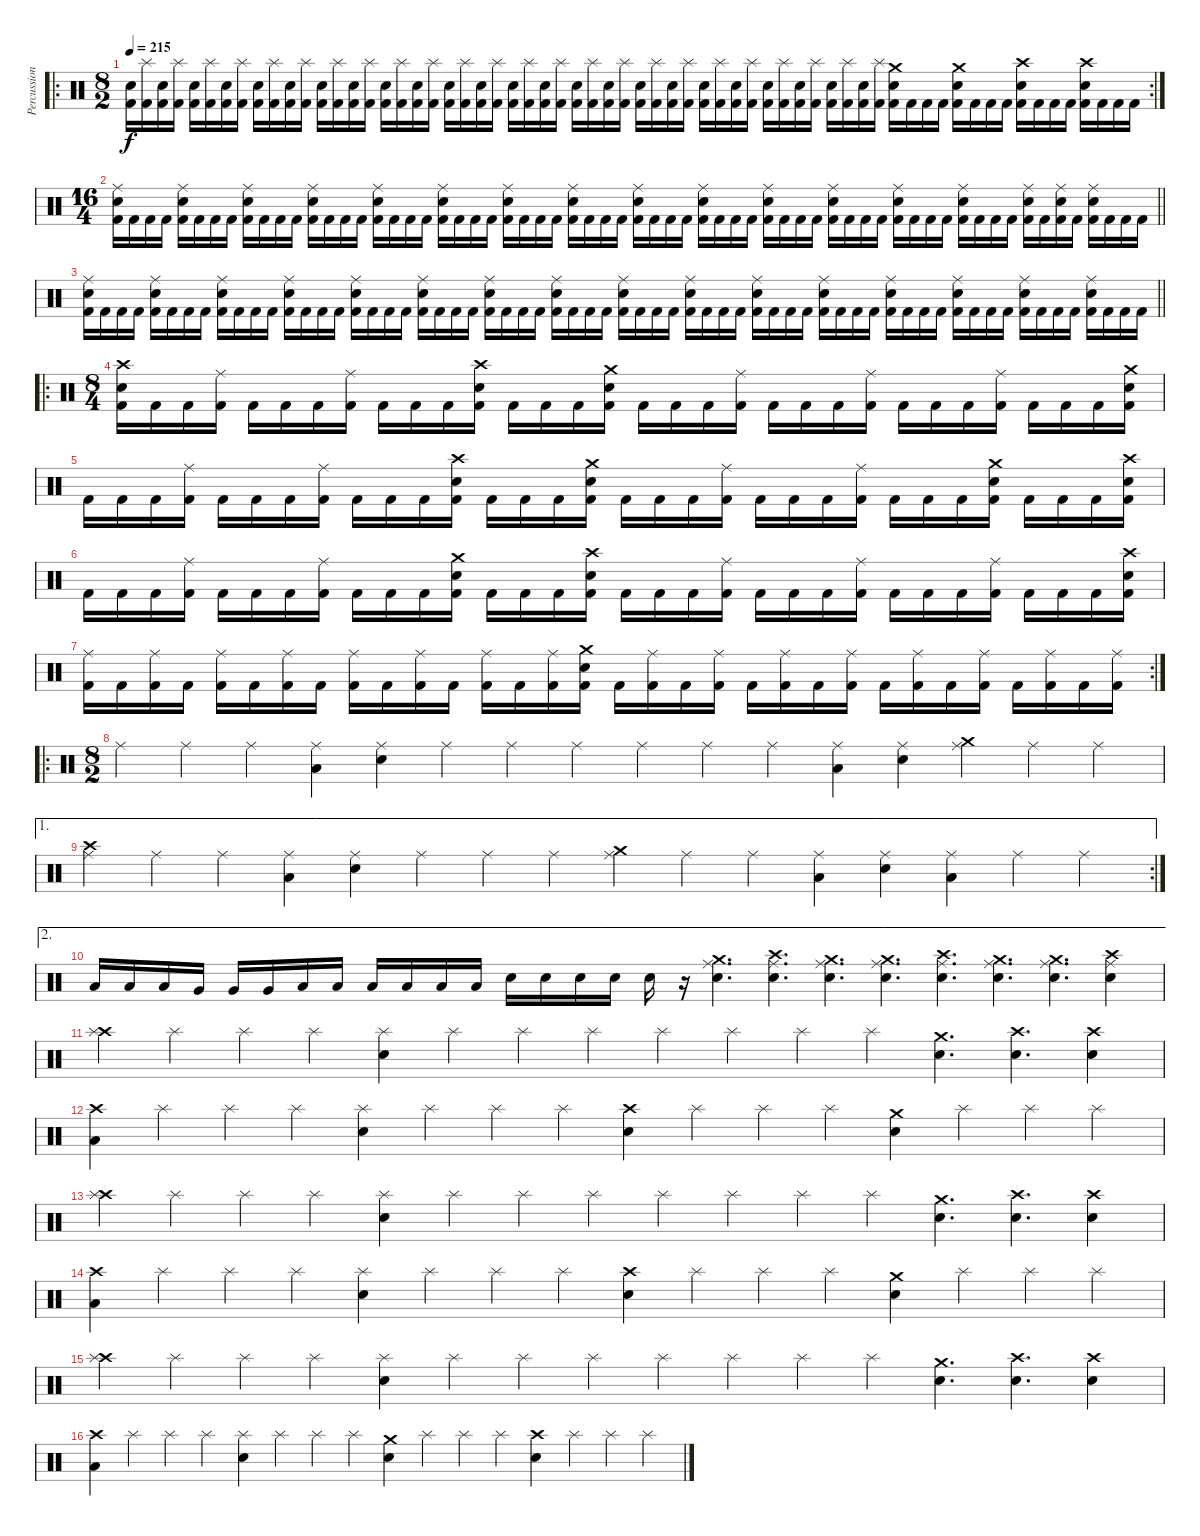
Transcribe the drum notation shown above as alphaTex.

\track ("Percussions" "Percussion") {instrument percussion}
\staff {score}
\articulation defaults
\ro
\rc 2
\ts (8 2)
\tempo 215
\clef neutral
\ks c
("Electric Snare (hit)" "Kick (hit) 2").16{dy f} ("Splash (hit)" "Kick (hit) 2").16 ("Electric Snare (hit)" "Kick (hit) 2").16 ("Splash (hit)" "Kick (hit) 2").16 ("Electric Snare (hit)" "Kick (hit) 2").16 ("Splash (hit)" "Kick (hit) 2").16 ("Electric Snare (hit)" "Kick (hit) 2").16 ("Splash (hit)" "Kick (hit) 2").16 ("Electric Snare (hit)" "Kick (hit) 2").16 ("Splash (hit)" "Kick (hit) 2").16 ("Electric Snare (hit)" "Kick (hit) 2").16 ("Splash (hit)" "Kick (hit) 2").16 ("Electric Snare (hit)" "Kick (hit) 2").16 ("Splash (hit)" "Kick (hit) 2").16 ("Electric Snare (hit)" "Kick (hit) 2").16 ("Splash (hit)" "Kick (hit) 2").16 ("Electric Snare (hit)" "Kick (hit) 2").16 ("Splash (hit)" "Kick (hit) 2").16 ("Electric Snare (hit)" "Kick (hit) 2").16 ("Splash (hit)" "Kick (hit) 2").16 ("Electric Snare (hit)" "Kick (hit) 2").16 ("Splash (hit)" "Kick (hit) 2").16 ("Electric Snare (hit)" "Kick (hit) 2").16 ("Splash (hit)" "Kick (hit) 2").16 ("Electric Snare (hit)" "Kick (hit) 2").16 ("Splash (hit)" "Kick (hit) 2").16 ("Electric Snare (hit)" "Kick (hit) 2").16 ("Splash (hit)" "Kick (hit) 2").16 ("Electric Snare (hit)" "Kick (hit) 2").16 ("Splash (hit)" "Kick (hit) 2").16 ("Electric Snare (hit)" "Kick (hit) 2").16 ("Splash (hit)" "Kick (hit) 2").16 ("Electric Snare (hit)" "Kick (hit) 2").16 ("Splash (hit)" "Kick (hit) 2").16 ("Electric Snare (hit)" "Kick (hit) 2").16 ("Splash (hit)" "Kick (hit) 2").16 ("Electric Snare (hit)" "Kick (hit) 2").16 ("Splash (hit)" "Kick (hit) 2").16 ("Electric Snare (hit)" "Kick (hit) 2").16 ("Splash (hit)" "Kick (hit) 2").16 ("Electric Snare (hit)" "Kick (hit) 2").16 ("Splash (hit)" "Kick (hit) 2").16 ("Electric Snare (hit)" "Kick (hit) 2").16 ("Splash (hit)" "Kick (hit) 2").16 ("Electric Snare (hit)" "Kick (hit) 2").16 ("Splash (hit)" "Kick (hit) 2").16 ("Electric Snare (hit)" "Kick (hit) 2").16 ("Splash (hit)" "Kick (hit) 2").16 ("Crash medium (hit)" "Electric Snare (hit)" "Kick (hit) 2").16 "Kick (hit) 2".16 "Kick (hit) 2".16 "Kick (hit) 2".16 ("Crash medium (hit)" "Electric Snare (hit)" "Kick (hit) 2").16 "Kick (hit) 2".16 "Kick (hit) 2".16 "Kick (hit) 2".16 ("Crash high (hit)" "Electric Snare (hit)" "Kick (hit) 2").16 "Kick (hit) 2".16 "Kick (hit) 2".16 "Kick (hit) 2".16 ("Crash high (hit)" "Electric Snare (hit)" "Kick (hit) 2").16 "Kick (hit) 2".16 "Kick (hit) 2".16 "Kick (hit) 2".16 |
\ts (16 4)
\barLineRight lightlight
("Ride (middle)" "Electric Snare (hit)" "Kick (hit) 2").16 "Kick (hit) 2".16 "Kick (hit) 2".16 "Kick (hit) 2".16 ("Ride (middle)" "Electric Snare (hit)" "Kick (hit) 2").16 "Kick (hit) 2".16 "Kick (hit) 2".16 "Kick (hit) 2".16 ("Ride (middle)" "Electric Snare (hit)" "Kick (hit) 2").16 "Kick (hit) 2".16 "Kick (hit) 2".16 "Kick (hit) 2".16 ("Ride (middle)" "Electric Snare (hit)" "Kick (hit) 2").16 "Kick (hit) 2".16 "Kick (hit) 2".16 "Kick (hit) 2".16 ("Ride (middle)" "Electric Snare (hit)" "Kick (hit) 2").16 "Kick (hit) 2".16 "Kick (hit) 2".16 "Kick (hit) 2".16 ("Ride (middle)" "Electric Snare (hit)" "Kick (hit) 2").16 "Kick (hit) 2".16 "Kick (hit) 2".16 "Kick (hit) 2".16 ("Ride (middle)" "Electric Snare (hit)" "Kick (hit) 2").16 "Kick (hit) 2".16 "Kick (hit) 2".16 "Kick (hit) 2".16 ("Ride (middle)" "Electric Snare (hit)" "Kick (hit) 2").16 "Kick (hit) 2".16 "Kick (hit) 2".16 "Kick (hit) 2".16 ("Ride (middle)" "Electric Snare (hit)" "Kick (hit) 2").16 "Kick (hit) 2".16 "Kick (hit) 2".16 "Kick (hit) 2".16 ("Ride (middle)" "Electric Snare (hit)" "Kick (hit) 2").16 "Kick (hit) 2".16 "Kick (hit) 2".16 "Kick (hit) 2".16 ("Ride (middle)" "Electric Snare (hit)" "Kick (hit) 2").16 "Kick (hit) 2".16 "Kick (hit) 2".16 "Kick (hit) 2".16 ("Ride (middle)" "Electric Snare (hit)" "Kick (hit) 2").16 "Kick (hit) 2".16 "Kick (hit) 2".16 "Kick (hit) 2".16 ("Ride (middle)" "Electric Snare (hit)" "Kick (hit) 2").16 "Kick (hit) 2".16 "Kick (hit) 2".16 "Kick (hit) 2".16 ("Ride (middle)" "Electric Snare (hit)" "Kick (hit) 2").16 "Kick (hit) 2".16 "Kick (hit) 2".16 "Kick (hit) 2".16 ("Ride (middle)" "Electric Snare (hit)" "Kick (hit) 2").16 "Kick (hit) 2".16 ("Ride (middle)" "Electric Snare (hit)" "Kick (hit) 2").16 "Kick (hit) 2".16 ("Ride (middle)" "Electric Snare (hit)" "Kick (hit) 2").16 "Kick (hit) 2".16 "Kick (hit) 2".16 "Kick (hit) 2".16 |
\barLineRight lightlight
("Ride (middle)" "Electric Snare (hit)" "Kick (hit) 2").16 "Kick (hit) 2".16 "Kick (hit) 2".16 "Kick (hit) 2".16 ("Ride (middle)" "Electric Snare (hit)" "Kick (hit) 2").16 "Kick (hit) 2".16 "Kick (hit) 2".16 "Kick (hit) 2".16 ("Ride (middle)" "Electric Snare (hit)" "Kick (hit) 2").16 "Kick (hit) 2".16 "Kick (hit) 2".16 "Kick (hit) 2".16 ("Ride (middle)" "Electric Snare (hit)" "Kick (hit) 2").16 "Kick (hit) 2".16 "Kick (hit) 2".16 "Kick (hit) 2".16 ("Ride (middle)" "Electric Snare (hit)" "Kick (hit) 2").16 "Kick (hit) 2".16 "Kick (hit) 2".16 "Kick (hit) 2".16 ("Ride (middle)" "Electric Snare (hit)" "Kick (hit) 2").16 "Kick (hit) 2".16 "Kick (hit) 2".16 "Kick (hit) 2".16 ("Ride (middle)" "Electric Snare (hit)" "Kick (hit) 2").16 "Kick (hit) 2".16 "Kick (hit) 2".16 "Kick (hit) 2".16 ("Ride (middle)" "Electric Snare (hit)" "Kick (hit) 2").16 "Kick (hit) 2".16 "Kick (hit) 2".16 "Kick (hit) 2".16 ("Ride (middle)" "Electric Snare (hit)" "Kick (hit) 2").16 "Kick (hit) 2".16 "Kick (hit) 2".16 "Kick (hit) 2".16 ("Ride (middle)" "Electric Snare (hit)" "Kick (hit) 2").16 "Kick (hit) 2".16 "Kick (hit) 2".16 "Kick (hit) 2".16 ("Ride (middle)" "Electric Snare (hit)" "Kick (hit) 2").16 "Kick (hit) 2".16 "Kick (hit) 2".16 "Kick (hit) 2".16 ("Ride (middle)" "Electric Snare (hit)" "Kick (hit) 2").16 "Kick (hit) 2".16 "Kick (hit) 2".16 "Kick (hit) 2".16 ("Ride (middle)" "Electric Snare (hit)" "Kick (hit) 2").16 "Kick (hit) 2".16 "Kick (hit) 2".16 "Kick (hit) 2".16 ("Ride (middle)" "Electric Snare (hit)" "Kick (hit) 2").16 "Kick (hit) 2".16 "Kick (hit) 2".16 "Kick (hit) 2".16 ("Ride (middle)" "Electric Snare (hit)" "Kick (hit) 2").16 "Kick (hit) 2".16 "Kick (hit) 2".16 "Kick (hit) 2".16 ("Ride (middle)" "Electric Snare (hit)" "Kick (hit) 2").16 "Kick (hit) 2".16 "Kick (hit) 2".16 "Kick (hit) 2".16 |
\ro
\ts (8 4)
("Crash high (hit)" "Electric Snare (hit)" "Kick (hit) 2").16 "Kick (hit) 2".16 "Kick (hit) 2".16 ("Ride (middle)" "Kick (hit) 2").16 "Kick (hit) 2".16 "Kick (hit) 2".16 "Kick (hit) 2".16 ("Ride (middle)" "Kick (hit) 2").16 "Kick (hit) 2".16 "Kick (hit) 2".16 "Kick (hit) 2".16 ("Crash high (hit)" "Electric Snare (hit)" "Kick (hit) 2").16 "Kick (hit) 2".16 "Kick (hit) 2".16 "Kick (hit) 2".16 ("Crash medium (hit)" "Electric Snare (hit)" "Kick (hit) 2").16 "Kick (hit) 2".16 "Kick (hit) 2".16 "Kick (hit) 2".16 ("Ride (middle)" "Kick (hit) 2").16 "Kick (hit) 2".16 "Kick (hit) 2".16 "Kick (hit) 2".16 ("Ride (middle)" "Kick (hit) 2").16 "Kick (hit) 2".16 "Kick (hit) 2".16 "Kick (hit) 2".16 ("Ride (middle)" "Kick (hit) 2").16 "Kick (hit) 2".16 "Kick (hit) 2".16 "Kick (hit) 2".16 ("Crash medium (hit)" "Electric Snare (hit)" "Kick (hit) 2").16 |
"Kick (hit) 2".16 "Kick (hit) 2".16 "Kick (hit) 2".16 ("Ride (middle)" "Kick (hit) 2").16 "Kick (hit) 2".16 "Kick (hit) 2".16 "Kick (hit) 2".16 ("Ride (middle)" "Kick (hit) 2").16 "Kick (hit) 2".16 "Kick (hit) 2".16 "Kick (hit) 2".16 ("Crash high (hit)" "Electric Snare (hit)" "Kick (hit) 2").16 "Kick (hit) 2".16 "Kick (hit) 2".16 "Kick (hit) 2".16 ("Crash medium (hit)" "Electric Snare (hit)" "Kick (hit) 2").16 "Kick (hit) 2".16 "Kick (hit) 2".16 "Kick (hit) 2".16 ("Ride (middle)" "Kick (hit) 2").16 "Kick (hit) 2".16 "Kick (hit) 2".16 "Kick (hit) 2".16 ("Ride (middle)" "Kick (hit) 2").16 "Kick (hit) 2".16 "Kick (hit) 2".16 "Kick (hit) 2".16 ("Crash medium (hit)" "Electric Snare (hit)" "Kick (hit) 2").16 "Kick (hit) 2".16 "Kick (hit) 2".16 "Kick (hit) 2".16 ("Crash high (hit)" "Electric Snare (hit)" "Kick (hit) 2").16 |
"Kick (hit) 2".16 "Kick (hit) 2".16 "Kick (hit) 2".16 ("Ride (middle)" "Kick (hit) 2").16 "Kick (hit) 2".16 "Kick (hit) 2".16 "Kick (hit) 2".16 ("Ride (middle)" "Kick (hit) 2").16 "Kick (hit) 2".16 "Kick (hit) 2".16 "Kick (hit) 2".16 ("Crash medium (hit)" "Electric Snare (hit)" "Kick (hit) 2").16 "Kick (hit) 2".16 "Kick (hit) 2".16 "Kick (hit) 2".16 ("Crash high (hit)" "Electric Snare (hit)" "Kick (hit) 2").16 "Kick (hit) 2".16 "Kick (hit) 2".16 "Kick (hit) 2".16 ("Ride (middle)" "Kick (hit) 2").16 "Kick (hit) 2".16 "Kick (hit) 2".16 "Kick (hit) 2".16 ("Ride (middle)" "Kick (hit) 2").16 "Kick (hit) 2".16 "Kick (hit) 2".16 "Kick (hit) 2".16 ("Ride (middle)" "Kick (hit) 2").16 "Kick (hit) 2".16 "Kick (hit) 2".16 "Kick (hit) 2".16 ("Crash high (hit)" "Electric Snare (hit)" "Kick (hit) 2").16 |
\rc 2
("Ride (middle)" "Kick (hit) 2").16 "Kick (hit) 2".16 ("Ride (middle)" "Kick (hit) 2").16 "Kick (hit) 2".16 ("Ride (middle)" "Kick (hit) 2").16 "Kick (hit) 2".16 ("Ride (middle)" "Kick (hit) 2").16 "Kick (hit) 2".16 ("Ride (middle)" "Kick (hit) 2").16 "Kick (hit) 2".16 ("Ride (middle)" "Kick (hit) 2").16 "Kick (hit) 2".16 ("Ride (middle)" "Kick (hit) 2").16 "Kick (hit) 2".16 ("Ride (middle)" "Kick (hit) 2").16 ("Crash medium (hit)" "Electric Snare (hit)" "Kick (hit) 2").16 "Kick (hit) 2".16 ("Ride (middle)" "Kick (hit) 2").16 "Kick (hit) 2".16 ("Ride (middle)" "Kick (hit) 2").16 "Kick (hit) 2".16 ("Ride (middle)" "Kick (hit) 2").16 "Kick (hit) 2".16 ("Ride (middle)" "Kick (hit) 2").16 "Kick (hit) 2".16 ("Ride (middle)" "Kick (hit) 2").16 "Kick (hit) 2".16 ("Ride (middle)" "Kick (hit) 2").16 "Kick (hit) 2".16 ("Ride (middle)" "Kick (hit) 2").16 "Kick (hit) 2".16 ("Ride (middle)" "Kick (hit) 2").16 |
\ro
\ts (8 2)
"Ride (middle)".4 "Ride (middle)".4 "Ride (middle)".4 ("Ride (middle)" "Low Floor Tom (hit)").4 ("Ride (middle)" "Electric Snare (hit)").4 "Ride (middle)".4 "Ride (middle)".4 "Ride (middle)".4 "Ride (middle)".4 "Ride (middle)".4 "Ride (middle)".4 ("Ride (middle)" "Low Floor Tom (hit)").4 ("Ride (middle)" "Electric Snare (hit)").4 ("Ride (middle)" "Crash medium (hit)").4 "Ride (middle)".4 "Ride (middle)".4 |
\ae 1
\rc 2
("Ride (middle)" "Crash high (hit)").4 "Ride (middle)".4 "Ride (middle)".4 ("Ride (middle)" "Low Floor Tom (hit)").4 ("Ride (middle)" "Electric Snare (hit)").4 "Ride (middle)".4 "Ride (middle)".4 "Ride (middle)".4 ("Ride (middle)" "Crash medium (hit)").4 "Ride (middle)".4 "Ride (middle)".4 ("Ride (middle)" "Low Floor Tom (hit)").4 ("Ride (middle)" "Electric Snare (hit)").4 ("Ride (middle)" "Low Floor Tom (hit)").4 "Ride (middle)".4 "Ride (middle)".4 |
\ae 2 "Low Tom (hit)".16 "Low Tom (hit)".16 "Low Tom (hit)".16 "Very Low Tom (hit)".16 "Very Low Tom (hit)".16 "Very Low Tom (hit)".16 "Low Tom (hit)".16 "Low Tom (hit)".16 "Low Tom (hit)".16 "Low Floor Tom (hit)".16 "Low Floor Tom (hit)".16 "Low Floor Tom (hit)".16 "Electric Snare (hit)".16 "Electric Snare (hit)".16 "Electric Snare (hit)".16 "Electric Snare (hit)".16 "Electric Snare (hit)".16
r.16 ("Crash medium (hit)" "Ride (middle)" "Electric Snare (hit)").4{d} ("Crash high (hit)" "Ride (middle)" "Electric Snare (hit)").4{d} ("Crash medium (hit)" "Ride (middle)" "Electric Snare (hit)").4{d} ("Crash medium (hit)" "Ride (middle)" "Electric Snare (hit)").4{d} ("Crash high (hit)" "Ride (middle)" "Electric Snare (hit)").4{d} ("Crash medium (hit)" "Ride (middle)" "Electric Snare (hit)").4{d} ("Crash medium (hit)" "Ride (middle)" "Electric Snare (hit)").4{d} ("Crash high (hit)" "Ride (middle)" "Electric Snare (hit)").4 |
("Crash high (hit)" "Splash (hit)").4 "Splash (hit)".4 "Splash (hit)".4 "Splash (hit)".4 ("Splash (hit)" "Electric Snare (hit)").4 "Splash (hit)".4 "Splash (hit)".4 "Splash (hit)".4 "Splash (hit)".4 "Splash (hit)".4 "Splash (hit)".4 "Splash (hit)".4 ("Crash medium (hit)" "Electric Snare (hit)").4{d} ("Crash high (hit)" "Electric Snare (hit)").4{d} ("Crash high (hit)" "Electric Snare (hit)").4 |
("Crash high (hit)" "Low Floor Tom (hit)").4 "Splash (hit)".4 "Splash (hit)".4 "Splash (hit)".4 ("Splash (hit)" "Electric Snare (hit)").4 "Splash (hit)".4 "Splash (hit)".4 "Splash (hit)".4 ("Crash high (hit)" "Electric Snare (hit)").4 "Splash (hit)".4 "Splash (hit)".4 "Splash (hit)".4 ("Crash medium (hit)" "Electric Snare (hit)").4 "Splash (hit)".4 "Splash (hit)".4 "Splash (hit)".4 |
("Crash high (hit)" "Splash (hit)").4 "Splash (hit)".4 "Splash (hit)".4 "Splash (hit)".4 ("Splash (hit)" "Electric Snare (hit)").4 "Splash (hit)".4 "Splash (hit)".4 "Splash (hit)".4 "Splash (hit)".4 "Splash (hit)".4 "Splash (hit)".4 "Splash (hit)".4 ("Crash medium (hit)" "Electric Snare (hit)").4{d} ("Crash high (hit)" "Electric Snare (hit)").4{d} ("Crash high (hit)" "Electric Snare (hit)").4 |
("Crash high (hit)" "Low Floor Tom (hit)").4 "Splash (hit)".4 "Splash (hit)".4 "Splash (hit)".4 ("Splash (hit)" "Electric Snare (hit)").4 "Splash (hit)".4 "Splash (hit)".4 "Splash (hit)".4 ("Crash high (hit)" "Electric Snare (hit)").4 "Splash (hit)".4 "Splash (hit)".4 "Splash (hit)".4 ("Crash medium (hit)" "Electric Snare (hit)").4 "Splash (hit)".4 "Splash (hit)".4 "Splash (hit)".4 |
("Crash high (hit)" "Splash (hit)").4 "Splash (hit)".4 "Splash (hit)".4 "Splash (hit)".4 ("Splash (hit)" "Electric Snare (hit)").4 "Splash (hit)".4 "Splash (hit)".4 "Splash (hit)".4 "Splash (hit)".4 "Splash (hit)".4 "Splash (hit)".4 "Splash (hit)".4 ("Crash medium (hit)" "Electric Snare (hit)").4{d} ("Crash high (hit)" "Electric Snare (hit)").4{d} ("Crash high (hit)" "Electric Snare (hit)").4 |
("Crash high (hit)" "Low Floor Tom (hit)").4 "Splash (hit)".4 "Splash (hit)".4 "Splash (hit)".4 ("Splash (hit)" "Electric Snare (hit)").4 "Splash (hit)".4 "Splash (hit)".4 "Splash (hit)".4 ("Crash medium (hit)" "Electric Snare (hit)").4 "Splash (hit)".4 "Splash (hit)".4 "Splash (hit)".4 ("Crash high (hit)" "Electric Snare (hit)").4 "Splash (hit)".4 "Splash (hit)".4 "Splash (hit)".4
